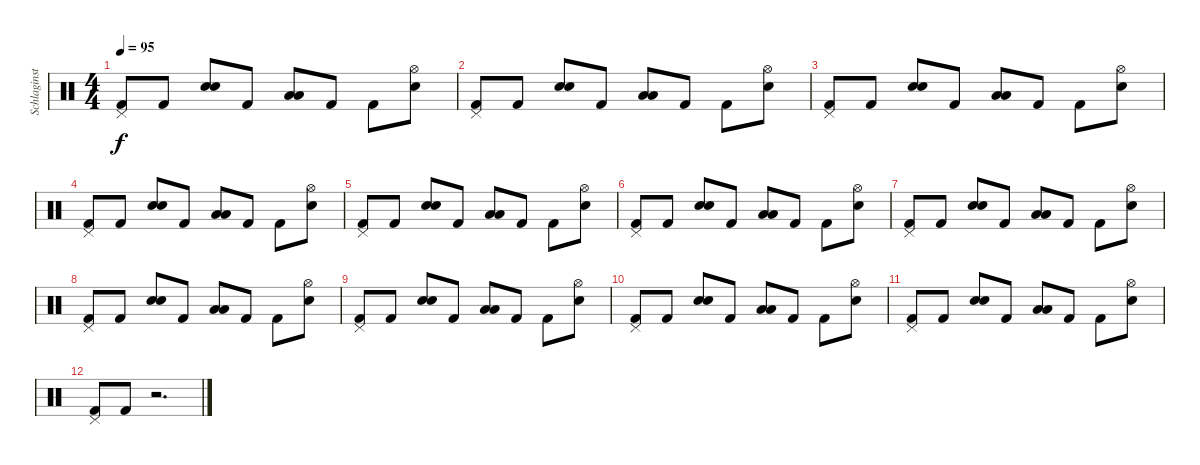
\track ("Schlaginstrumente - Auswahl" "Schlaginst") {instrument percussion}
\staff {score}
\articulation defaults
\ts (4 4)
\tempo 95
\clef neutral
\ks c
("Pedal Hi-Hat (hit)" "Kick (hit) 2").8{dy f} "Kick (hit) 2".8 ("Snare (hit) 2" "Snare (hit) 2").8{bd 240} "Kick (hit) 2".8 ("Low Tom (hit)" "Low Floor Tom (hit)").8 "Kick (hit) 2".8 "Kick (hit) 2".8 ("Hi-Hat (open)" "Snare (hit) 2").8 |
("Pedal Hi-Hat (hit)" "Kick (hit) 2").8 "Kick (hit) 2".8 ("Snare (hit) 2" "Snare (hit) 2").8{bd 240} "Kick (hit) 2".8 ("Low Tom (hit)" "Low Floor Tom (hit)").8 "Kick (hit) 2".8 "Kick (hit) 2".8 ("Hi-Hat (open)" "Snare (hit) 2").8 |
("Pedal Hi-Hat (hit)" "Kick (hit) 2").8 "Kick (hit) 2".8 ("Snare (hit) 2" "Snare (hit) 2").8{bd 240} "Kick (hit) 2".8 ("Low Tom (hit)" "Low Floor Tom (hit)").8 "Kick (hit) 2".8 "Kick (hit) 2".8 ("Hi-Hat (open)" "Snare (hit) 2").8 |
("Pedal Hi-Hat (hit)" "Kick (hit) 2").8 "Kick (hit) 2".8 ("Snare (hit) 2" "Snare (hit) 2").8{bd 240} "Kick (hit) 2".8 ("Low Tom (hit)" "Low Floor Tom (hit)").8 "Kick (hit) 2".8 "Kick (hit) 2".8 ("Hi-Hat (open)" "Snare (hit) 2").8 |
("Pedal Hi-Hat (hit)" "Kick (hit) 2").8 "Kick (hit) 2".8 ("Snare (hit) 2" "Snare (hit) 2").8{bd 240} "Kick (hit) 2".8 ("Low Tom (hit)" "Low Floor Tom (hit)").8 "Kick (hit) 2".8 "Kick (hit) 2".8 ("Hi-Hat (open)" "Snare (hit) 2").8 |
("Pedal Hi-Hat (hit)" "Kick (hit) 2").8 "Kick (hit) 2".8 ("Snare (hit) 2" "Snare (hit) 2").8{bd 240} "Kick (hit) 2".8 ("Low Tom (hit)" "Low Floor Tom (hit)").8 "Kick (hit) 2".8 "Kick (hit) 2".8 ("Hi-Hat (open)" "Snare (hit) 2").8 |
("Pedal Hi-Hat (hit)" "Kick (hit) 2").8 "Kick (hit) 2".8 ("Snare (hit) 2" "Snare (hit) 2").8{bd 240} "Kick (hit) 2".8 ("Low Tom (hit)" "Low Floor Tom (hit)").8 "Kick (hit) 2".8 "Kick (hit) 2".8 ("Hi-Hat (open)" "Snare (hit) 2").8 |
("Pedal Hi-Hat (hit)" "Kick (hit) 2").8 "Kick (hit) 2".8 ("Snare (hit) 2" "Snare (hit) 2").8{bd 240} "Kick (hit) 2".8 ("Low Tom (hit)" "Low Floor Tom (hit)").8 "Kick (hit) 2".8 "Kick (hit) 2".8 ("Hi-Hat (open)" "Snare (hit) 2").8 |
("Pedal Hi-Hat (hit)" "Kick (hit) 2").8 "Kick (hit) 2".8 ("Snare (hit) 2" "Snare (hit) 2").8{bd 240} "Kick (hit) 2".8 ("Low Tom (hit)" "Low Floor Tom (hit)").8 "Kick (hit) 2".8 "Kick (hit) 2".8 ("Hi-Hat (open)" "Snare (hit) 2").8 |
("Pedal Hi-Hat (hit)" "Kick (hit) 2").8 "Kick (hit) 2".8 ("Snare (hit) 2" "Snare (hit) 2").8{bd 240} "Kick (hit) 2".8 ("Low Tom (hit)" "Low Floor Tom (hit)").8 "Kick (hit) 2".8 "Kick (hit) 2".8 ("Hi-Hat (open)" "Snare (hit) 2").8 |
("Pedal Hi-Hat (hit)" "Kick (hit) 2").8 "Kick (hit) 2".8 ("Snare (hit) 2" "Snare (hit) 2").8{bd 240} "Kick (hit) 2".8 ("Low Tom (hit)" "Low Floor Tom (hit)").8 "Kick (hit) 2".8 "Kick (hit) 2".8 ("Hi-Hat (open)" "Snare (hit) 2").8 |
("Pedal Hi-Hat (hit)" "Kick (hit) 2").8 "Kick (hit) 2".8 r.2{d}
